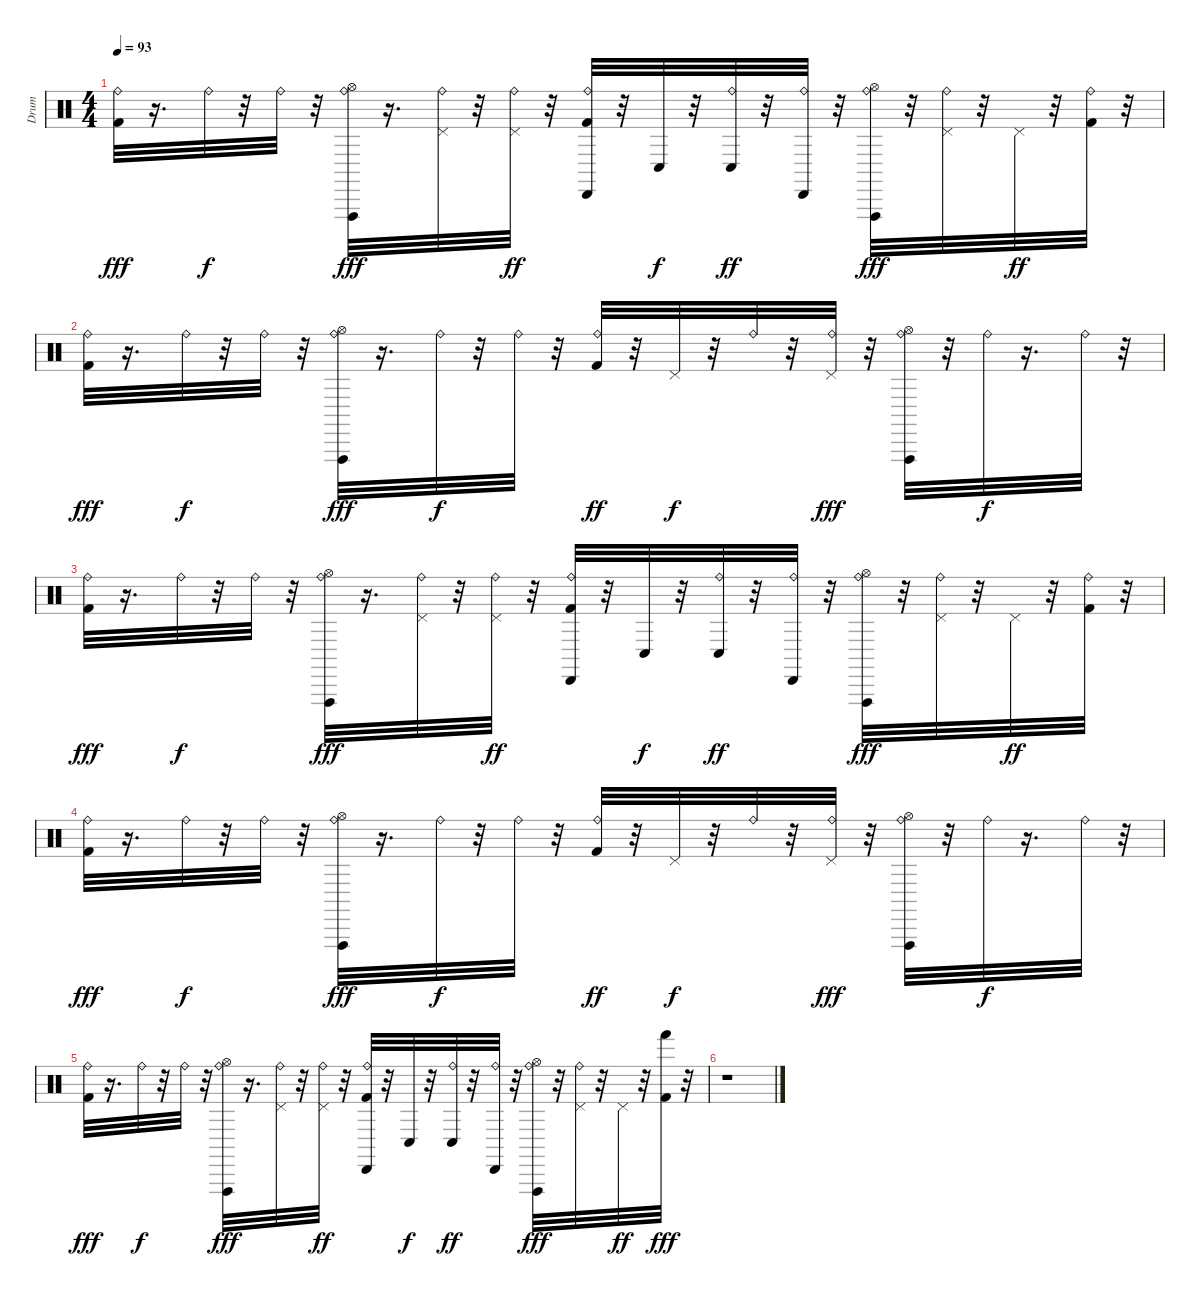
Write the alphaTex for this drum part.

\track ("Drum" "Drum") {instrument percussion}
\staff {score}
\articulation defaults
\ts (4 4)
\tempo 93
\clef neutral
\ks c
("Kick (hit) 2" "Ride (bell)").32{dy fff} r.16{d} "Ride (bell)".32{dy f} r.32 "Ride (bell)".32 r.32 ("Ride (bell)" "Vibraslap (hit)" "Hi-Hat (open)").32{dy fff} r.16{d} ("Ride (bell)" "Pedal Hi-Hat (hit)").32 r.32 ("Ride (bell)" "Pedal Hi-Hat (hit)").32{dy ff} r.32 ("Cabasa (hit)" "Kick (hit) 2" "Ride (bell)").32 r.32 "Conga low (hit)".32{dy f} r.32 ("Conga low (hit)" "Ride (bell)").32{dy ff} r.32 ("Cabasa (hit)" "Ride (bell)").32 r.32 ("Ride (bell)" "Vibraslap (hit)" "Hi-Hat (open)").32{dy fff} r.32 ("Ride (bell)" "Pedal Hi-Hat (hit)").32 r.32 "Pedal Hi-Hat (hit)".32{dy ff} r.32 ("Kick (hit) 2" "Ride (bell)").32 r.32 |
("Kick (hit) 2" "Ride (bell)").32{dy fff} r.16{d} "Ride (bell)".32{dy f} r.32 "Ride (bell)".32 r.32 ("Ride (bell)" "Vibraslap (hit)" "Hi-Hat (open)").32{dy fff} r.16{d} "Ride (bell)".32{dy f} r.32 "Ride (bell)".32 r.32 ("Kick (hit) 2" "Ride (bell)").32{dy ff} r.32 "Pedal Hi-Hat (hit)".32{dy f} r.32 "Ride (bell)".32 r.32 ("Ride (bell)" "Pedal Hi-Hat (hit)").32{dy fff} r.32 ("Ride (bell)" "Vibraslap (hit)" "Hi-Hat (open)").32 r.32 "Ride (bell)".32{dy f} r.16{d} "Ride (bell)".32 r.32 |
("Kick (hit) 2" "Ride (bell)").32{dy fff} r.16{d} "Ride (bell)".32{dy f} r.32 "Ride (bell)".32 r.32 ("Ride (bell)" "Vibraslap (hit)" "Hi-Hat (open)").32{dy fff} r.16{d} ("Ride (bell)" "Pedal Hi-Hat (hit)").32 r.32 ("Ride (bell)" "Pedal Hi-Hat (hit)").32{dy ff} r.32 ("Cabasa (hit)" "Kick (hit) 2" "Ride (bell)").32 r.32 "Conga low (hit)".32{dy f} r.32 ("Conga low (hit)" "Ride (bell)").32{dy ff} r.32 ("Cabasa (hit)" "Ride (bell)").32 r.32 ("Ride (bell)" "Vibraslap (hit)" "Hi-Hat (open)").32{dy fff} r.32 ("Ride (bell)" "Pedal Hi-Hat (hit)").32 r.32 "Pedal Hi-Hat (hit)".32{dy ff} r.32 ("Kick (hit) 2" "Ride (bell)").32 r.32 |
("Kick (hit) 2" "Ride (bell)").32{dy fff} r.16{d} "Ride (bell)".32{dy f} r.32 "Ride (bell)".32 r.32 ("Ride (bell)" "Vibraslap (hit)" "Hi-Hat (open)").32{dy fff} r.16{d} "Ride (bell)".32{dy f} r.32 "Ride (bell)".32 r.32 ("Kick (hit) 2" "Ride (bell)").32{dy ff} r.32 "Pedal Hi-Hat (hit)".32{dy f} r.32 "Ride (bell)".32 r.32 ("Ride (bell)" "Pedal Hi-Hat (hit)").32{dy fff} r.32 ("Ride (bell)" "Vibraslap (hit)" "Hi-Hat (open)").32 r.32 "Ride (bell)".32{dy f} r.16{d} "Ride (bell)".32 r.32 |
("Kick (hit) 2" "Ride (bell)").32{dy fff} r.16{d} "Ride (bell)".32{dy f} r.32 "Ride (bell)".32 r.32 ("Ride (bell)" "Vibraslap (hit)" "Hi-Hat (open)").32{dy fff} r.16{d} ("Ride (bell)" "Pedal Hi-Hat (hit)").32 r.32 ("Ride (bell)" "Pedal Hi-Hat (hit)").32{dy ff} r.32 ("Cabasa (hit)" "Kick (hit) 2" "Ride (bell)").32 r.32 "Conga low (hit)".32{dy f} r.32 ("Conga low (hit)" "Ride (bell)").32{dy ff} r.32 ("Cabasa (hit)" "Ride (bell)").32 r.32 ("Ride (bell)" "Vibraslap (hit)" "Hi-Hat (open)").32{dy fff} r.32 ("Ride (bell)" "Pedal Hi-Hat (hit)").32 r.32 "Pedal Hi-Hat (hit)".32{dy ff} r.32 ("Hand (hit)" "Kick (hit) 2").32{dy fff} r.32 |
r.1
